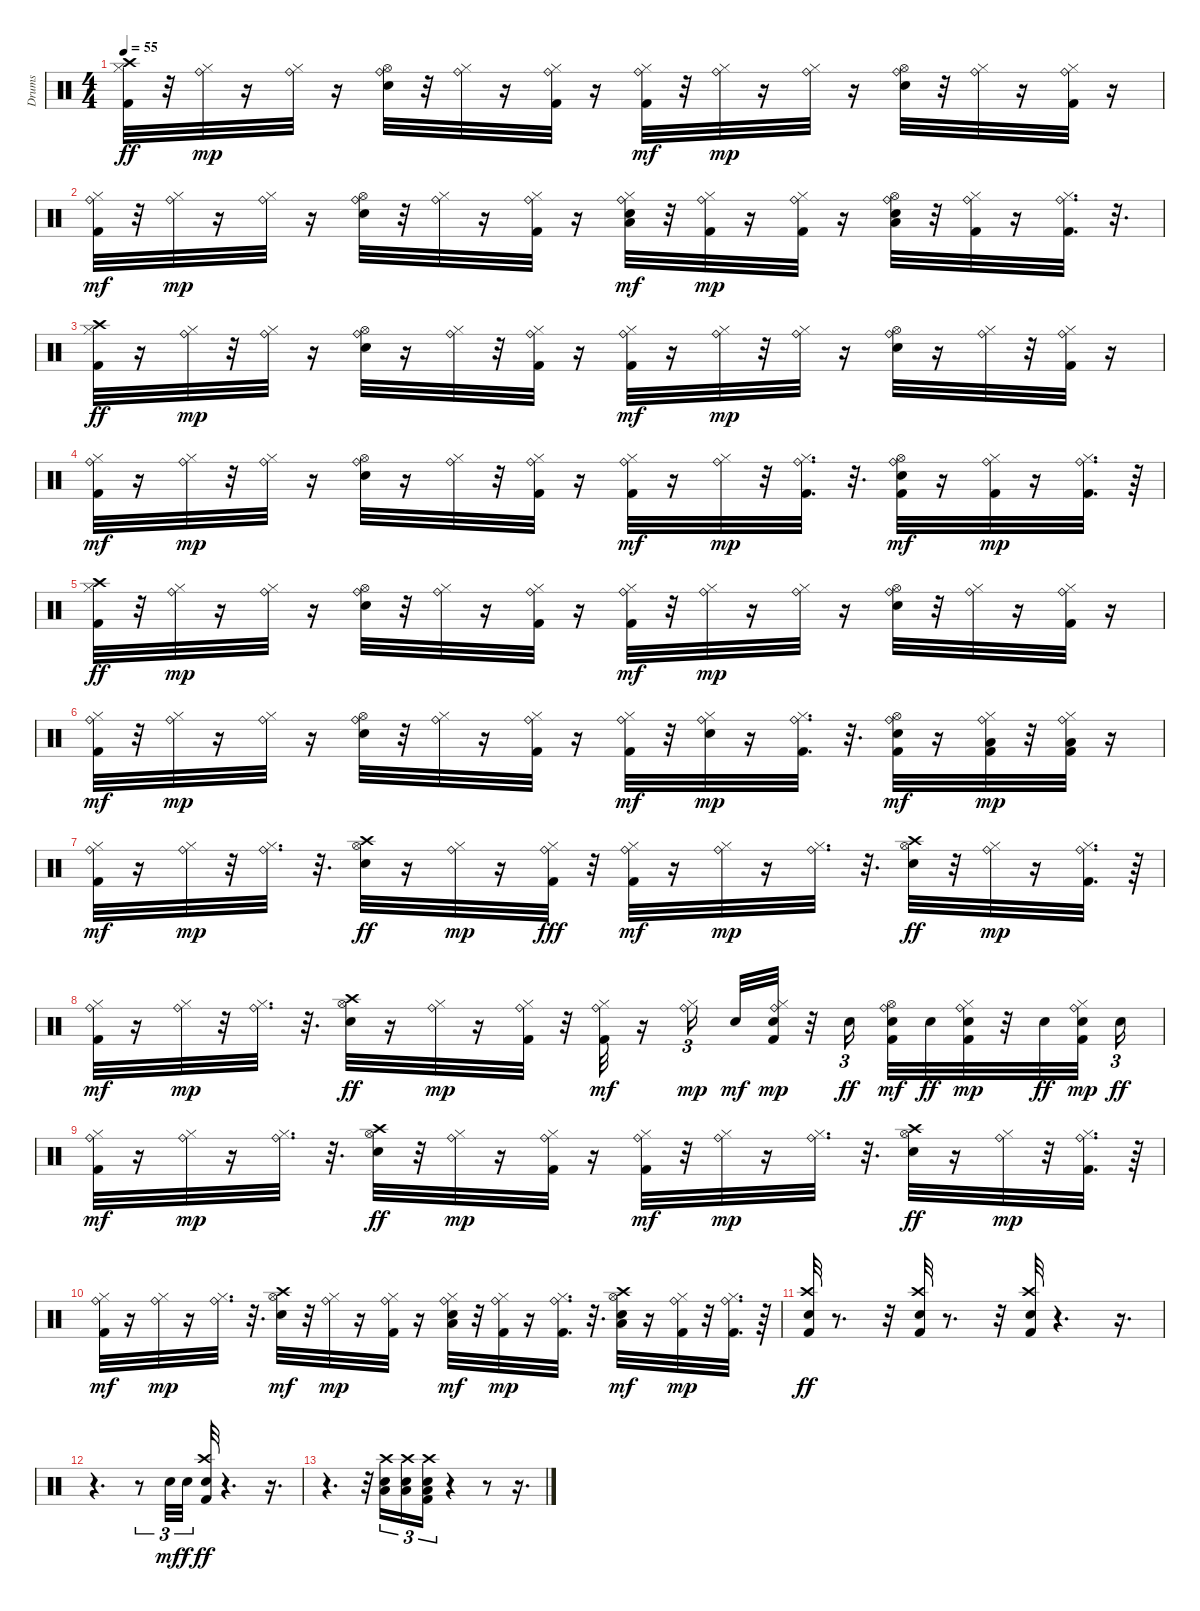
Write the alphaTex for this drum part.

\track ("Drums" "Drums") {instrument percussion}
\staff {score}
\articulation defaults
\ts (4 4)
\tempo 55
\clef neutral
\ks c
("Kick (hit) 2" "Hi-Hat (closed)" "Crash high (hit)").32{dy ff} r.32 ("Ride (bell)" "Hi-Hat (closed)").32{dy mp} r.16 ("Ride (bell)" "Hi-Hat (closed)").32 r.16 ("Ride (bell)" "Snare (hit) 2" "Hi-Hat (open)").32 r.32 ("Ride (bell)" "Hi-Hat (closed)").32 r.16 ("Ride (bell)" "Kick (hit) 2" "Hi-Hat (closed)").32 r.16 ("Ride (bell)" "Kick (hit) 2" "Hi-Hat (closed)").32{dy mf} r.32 ("Ride (bell)" "Hi-Hat (closed)").32{dy mp} r.16 ("Ride (bell)" "Hi-Hat (closed)").32 r.16 ("Ride (bell)" "Snare (hit) 2" "Hi-Hat (open)").32 r.32 ("Ride (bell)" "Hi-Hat (closed)").32 r.16 ("Ride (bell)" "Kick (hit) 2" "Hi-Hat (closed)").32 r.16 |
("Ride (bell)" "Kick (hit) 2" "Hi-Hat (closed)").32{dy mf} r.32 ("Ride (bell)" "Hi-Hat (closed)").32{dy mp} r.16 ("Ride (bell)" "Hi-Hat (closed)").32 r.16 ("Ride (bell)" "Snare (hit) 2" "Hi-Hat (open)").32 r.32 ("Ride (bell)" "Hi-Hat (closed)").32 r.16 ("Ride (bell)" "Kick (hit) 2" "Hi-Hat (closed)").32 r.16 ("Ride (bell)" "Snare (hit) 2" "Low Floor Tom (hit)" "Hi-Hat (closed)").32{dy mf} r.32 ("Ride (bell)" "Kick (hit) 2" "Hi-Hat (closed)").32{dy mp} r.16 ("Ride (bell)" "Kick (hit) 2" "Hi-Hat (closed)").32 r.16 ("Ride (bell)" "Snare (hit) 2" "Hi-Hat (open)" "Low Floor Tom (hit)").32 r.32 ("Ride (bell)" "Kick (hit) 2" "Hi-Hat (closed)").32 r.16 ("Ride (bell)" "Kick (hit) 2" "Hi-Hat (closed)").32{d} r.32{d} |
("Kick (hit) 2" "Hi-Hat (closed)" "Crash high (hit)").32{dy ff} r.16 ("Ride (bell)" "Hi-Hat (closed)").32{dy mp} r.32 ("Ride (bell)" "Hi-Hat (closed)").32 r.16 ("Ride (bell)" "Snare (hit) 2" "Hi-Hat (open)").32 r.16 ("Ride (bell)" "Hi-Hat (closed)").32 r.32 ("Ride (bell)" "Kick (hit) 2" "Hi-Hat (closed)").32 r.16 ("Ride (bell)" "Kick (hit) 2" "Hi-Hat (closed)").32{dy mf} r.16 ("Ride (bell)" "Hi-Hat (closed)").32{dy mp} r.32 ("Ride (bell)" "Hi-Hat (closed)").32 r.16 ("Ride (bell)" "Snare (hit) 2" "Hi-Hat (open)").32 r.16 ("Ride (bell)" "Hi-Hat (closed)").32 r.32 ("Ride (bell)" "Kick (hit) 2" "Hi-Hat (closed)").32 r.16 |
("Ride (bell)" "Kick (hit) 2" "Hi-Hat (closed)").32{dy mf} r.16 ("Ride (bell)" "Hi-Hat (closed)").32{dy mp} r.32 ("Ride (bell)" "Hi-Hat (closed)").32 r.16 ("Ride (bell)" "Snare (hit) 2" "Hi-Hat (open)").32 r.16 ("Ride (bell)" "Hi-Hat (closed)").32 r.32 ("Ride (bell)" "Kick (hit) 2" "Hi-Hat (closed)").32 r.16 ("Ride (bell)" "Kick (hit) 2" "Hi-Hat (closed)").32{dy mf} r.16 ("Ride (bell)" "Hi-Hat (closed)").32{dy mp} r.32 ("Ride (bell)" "Kick (hit) 2" "Hi-Hat (closed)").32{d} r.32{d} ("Kick (hit) 2" "Snare (hit) 2" "Hi-Hat (open)" "Ride (bell)").32{dy mf} r.16 ("Ride (bell)" "Kick (hit) 2" "Hi-Hat (closed)").32{dy mp} r.16 ("Ride (bell)" "Kick (hit) 2" "Hi-Hat (closed)").32{d} r.64 |
("Kick (hit) 2" "Hi-Hat (closed)" "Crash high (hit)").32{dy ff} r.32 ("Ride (bell)" "Hi-Hat (closed)").32{dy mp} r.16 ("Ride (bell)" "Hi-Hat (closed)").32 r.16 ("Ride (bell)" "Snare (hit) 2" "Hi-Hat (open)").32 r.32 ("Ride (bell)" "Hi-Hat (closed)").32 r.16 ("Ride (bell)" "Kick (hit) 2" "Hi-Hat (closed)").32 r.16 ("Ride (bell)" "Kick (hit) 2" "Hi-Hat (closed)").32{dy mf} r.32 ("Ride (bell)" "Hi-Hat (closed)").32{dy mp} r.16 ("Ride (bell)" "Hi-Hat (closed)").32 r.16 ("Ride (bell)" "Snare (hit) 2" "Hi-Hat (open)").32 r.32 ("Ride (bell)" "Hi-Hat (closed)").32 r.16 ("Ride (bell)" "Kick (hit) 2" "Hi-Hat (closed)").32 r.16 |
("Ride (bell)" "Kick (hit) 2" "Hi-Hat (closed)").32{dy mf} r.32 ("Ride (bell)" "Hi-Hat (closed)").32{dy mp} r.16 ("Ride (bell)" "Hi-Hat (closed)").32 r.16 ("Ride (bell)" "Snare (hit) 2" "Hi-Hat (open)").32 r.32 ("Ride (bell)" "Hi-Hat (closed)").32 r.16 ("Ride (bell)" "Kick (hit) 2" "Hi-Hat (closed)").32 r.16 ("Ride (bell)" "Kick (hit) 2" "Hi-Hat (closed)").32{dy mf} r.32 ("Ride (bell)" "Snare (hit) 2" "Hi-Hat (closed)").32{dy mp} r.16 ("Ride (bell)" "Kick (hit) 2" "Hi-Hat (closed)").32{d} r.32{d} ("Kick (hit) 2" "Snare (hit) 2" "Hi-Hat (open)" "Ride (bell)").32{dy mf} r.16 ("Ride (bell)" "Kick (hit) 2" "Low Floor Tom (hit)" "Hi-Hat (closed)").32{dy mp} r.32 ("Ride (bell)" "Kick (hit) 2" "Low Floor Tom (hit)" "Hi-Hat (closed)").32 r.16 |
("Kick (hit) 2" "Hi-Hat (closed)" "Ride (bell)").32{dy mf} r.16 ("Ride (bell)" "Hi-Hat (closed)").32{dy mp} r.32 ("Ride (bell)" "Hi-Hat (closed)").32{d} r.32{d} ("Snare (hit) 2" "Hi-Hat (open)" "Crash high (hit)").32{dy ff} r.16 ("Ride (bell)" "Hi-Hat (closed)").32{dy mp} r.16 ("Ride (bell)" "Hi-Hat (closed)" "Kick (hit) 2").32{dy fff} r.32 ("Ride (bell)" "Kick (hit) 2" "Hi-Hat (closed)").32{dy mf} r.16 ("Ride (bell)" "Hi-Hat (closed)").32{dy mp} r.16 ("Ride (bell)" "Hi-Hat (closed)").32{d} r.32{d} ("Snare (hit) 2" "Hi-Hat (open)" "Crash high (hit)").32{dy ff} r.32 ("Ride (bell)" "Hi-Hat (closed)").32{dy mp} r.16 ("Ride (bell)" "Kick (hit) 2" "Hi-Hat (closed)").32{d} r.64 |
("Kick (hit) 2" "Hi-Hat (closed)" "Ride (bell)").32{dy mf} r.16 ("Ride (bell)" "Hi-Hat (closed)").32{dy mp} r.32 ("Ride (bell)" "Hi-Hat (closed)").32{d} r.32{d} ("Snare (hit) 2" "Hi-Hat (open)" "Crash high (hit)").32{dy ff} r.16 ("Ride (bell)" "Hi-Hat (closed)").32{dy mp} r.16 ("Ride (bell)" "Kick (hit) 2" "Hi-Hat (closed)").32 r.32 ("Ride (bell)" "Kick (hit) 2" "Hi-Hat (closed)").32{dy mf} r.16 ("Ride (bell)" "Hi-Hat (closed)").16{tu (3 2) dy mp beam splitsecondary} "Snare (hit) 2".32{dy mf} ("Ride (bell)" "Kick (hit) 2" "Snare (hit) 2" "Hi-Hat (closed)").32{dy mp} r.32 "Snare (hit) 2".16{tu (3 2) dy ff} ("Kick (hit) 2" "Snare (hit) 2" "Hi-Hat (open)" "Ride (bell)").32{dy mf} "Snare (hit) 2".32{dy ff} ("Ride (bell)" "Kick (hit) 2" "Snare (hit) 2" "Hi-Hat (closed)").32{dy mp} r.32 "Snare (hit) 2".32{dy ff} ("Ride (bell)" "Kick (hit) 2" "Snare (hit) 2" "Hi-Hat (closed)").32{dy mp beam splitsecondary} "Snare (hit) 2".16{tu (3 2) dy ff} |
("Kick (hit) 2" "Hi-Hat (closed)" "Ride (bell)").32{dy mf} r.16 ("Ride (bell)" "Hi-Hat (closed)").32{dy mp} r.16 ("Ride (bell)" "Hi-Hat (closed)").32{d} r.32{d} ("Snare (hit) 2" "Hi-Hat (open)" "Crash high (hit)").32{dy ff} r.32 ("Ride (bell)" "Hi-Hat (closed)").32{dy mp} r.16 ("Ride (bell)" "Kick (hit) 2" "Hi-Hat (closed)").32 r.16 ("Ride (bell)" "Kick (hit) 2" "Hi-Hat (closed)").32{dy mf} r.32 ("Ride (bell)" "Hi-Hat (closed)").32{dy mp} r.16 ("Ride (bell)" "Hi-Hat (closed)").32{d} r.32{d} ("Snare (hit) 2" "Hi-Hat (open)" "Crash high (hit)").32{dy ff} r.16 ("Ride (bell)" "Hi-Hat (closed)").32{dy mp} r.32 ("Ride (bell)" "Kick (hit) 2" "Hi-Hat (closed)").32{d} r.64 |
("Kick (hit) 2" "Hi-Hat (closed)" "Ride (bell)").32{dy mf} r.16 ("Ride (bell)" "Hi-Hat (closed)").32{dy mp} r.16 ("Ride (bell)" "Hi-Hat (closed)").32{d} r.32{d} ("Snare (hit) 2" "Hi-Hat (open)" "Crash high (hit)").32{dy mf} r.32 ("Ride (bell)" "Hi-Hat (closed)").32{dy mp} r.16 ("Ride (bell)" "Kick (hit) 2" "Hi-Hat (closed)").32 r.16 ("Ride (bell)" "Snare (hit) 2" "Low Floor Tom (hit)" "Hi-Hat (closed)").32{dy mf} r.32 ("Ride (bell)" "Kick (hit) 2" "Hi-Hat (closed)").32{dy mp} r.16 ("Ride (bell)" "Kick (hit) 2" "Hi-Hat (closed)").32{d} r.32{d} ("Snare (hit) 2" "Hi-Hat (open)" "Crash high (hit)" "Low Floor Tom (hit)").32{dy mf} r.16 ("Ride (bell)" "Kick (hit) 2" "Hi-Hat (closed)").32{dy mp} r.32 ("Ride (bell)" "Kick (hit) 2" "Hi-Hat (closed)").32{d} r.64 |
("Kick (hit) 2" "Snare (hit) 2" "Crash high (hit)").32{dy ff} r.8{d} r.32 ("Kick (hit) 2" "Snare (hit) 2" "Crash high (hit)").32 r.8{d} r.32 ("Kick (hit) 2" "Snare (hit) 2" "Crash high (hit)").32 r.4{d} r.16{d} |
r.4{d} r.8{tu (3 2)} "Snare (hit) 2".32{tu (3 2) dy mf} "Snare (hit) 2".32{tu (3 2) dy f} ("Kick (hit) 2" "Snare (hit) 2" "Crash high (hit)").32{dy ff} r.4{d} r.16{d} |
r.4{d} r.32 ("Snare (hit) 2" "Crash high (hit)" "Low Floor Tom (hit)").16{tu (3 2)} ("Snare (hit) 2" "Crash high (hit)" "Low Floor Tom (hit)").16{tu (3 2)} ("Kick (hit) 2" "Snare (hit) 2" "Crash high (hit)" "Low Floor Tom (hit)").16{tu (3 2)} r.4 r.8 r.16{d}
